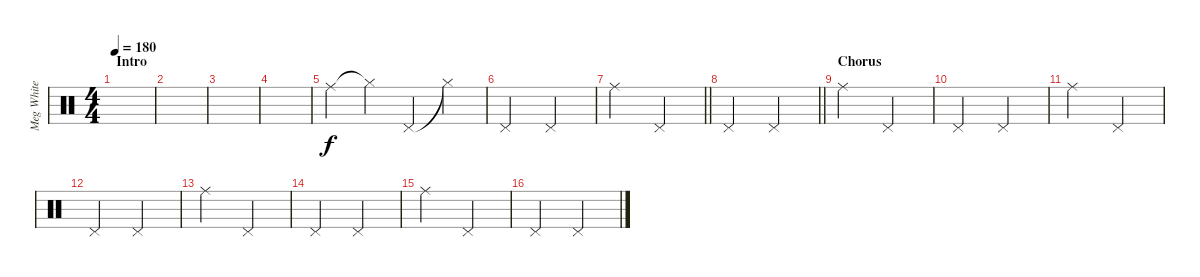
\track ("Meg White" "Meg White") {instrument percussion}
\staff {score}
\articulation defaults
\ts (4 4)
\section ("" "Intro")
\tempo 180
\clef neutral
\ks c
|
|
|
|
"Ride (middle)".4 "Hi-Hat (closed)"{t}.4 "Pedal Hi-Hat (hit)".4 "Hi-Hat (closed)"{t}.4 |
"Pedal Hi-Hat (hit)".2 "Pedal Hi-Hat (hit)".2 |
\barLineRight lightlight "Ride (middle)".2 "Pedal Hi-Hat (hit)".2
|
\barLineRight lightlight "Pedal Hi-Hat (hit)".2 "Pedal Hi-Hat (hit)".2
|
\section ("" "Chorus")
"Ride (middle)".2 "Pedal Hi-Hat (hit)".2 |
"Pedal Hi-Hat (hit)".2 "Pedal Hi-Hat (hit)".2 |
"Ride (middle)".2 "Pedal Hi-Hat (hit)".2 |
"Pedal Hi-Hat (hit)".2 "Pedal Hi-Hat (hit)".2 |
"Ride (middle)".2 "Pedal Hi-Hat (hit)".2 |
"Pedal Hi-Hat (hit)".2 "Pedal Hi-Hat (hit)".2 |
"Ride (middle)".2 "Pedal Hi-Hat (hit)".2 |
"Pedal Hi-Hat (hit)".2 "Pedal Hi-Hat (hit)".2
